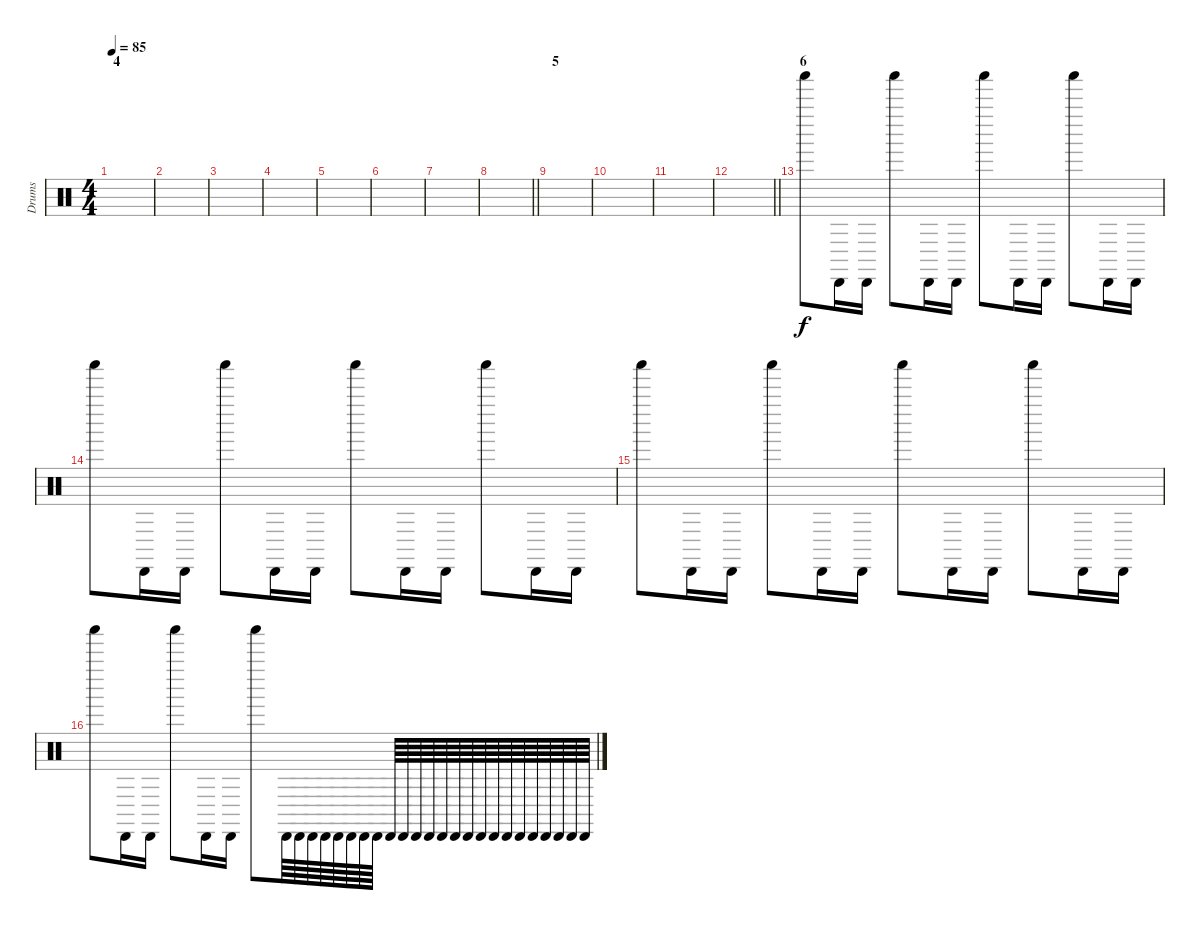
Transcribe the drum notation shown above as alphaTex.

\track ("Drums" "Drums") {instrument percussion}
\staff {score}
\articulation defaults
\ts (4 4)
\section ("" "4")
\tempo 85
\clef neutral
\ks c
|
|
|
|
|
|
|
\barLineRight lightlight
|
\section ("" "5")
|
|
|
\barLineRight lightlight
|
\section ("" "6")
"Shaker (hit)".8 "Cabasa (hit)".16 "Cabasa (hit)".16 "Shaker (hit)".8 "Cabasa (hit)".16 "Cabasa (hit)".16 "Shaker (hit)".8 "Cabasa (hit)".16 "Cabasa (hit)".16 "Shaker (hit)".8 "Cabasa (hit)".16 "Cabasa (hit)".16 |
"Shaker (hit)".8 "Cabasa (hit)".16 "Cabasa (hit)".16 "Shaker (hit)".8 "Cabasa (hit)".16 "Cabasa (hit)".16 "Shaker (hit)".8 "Cabasa (hit)".16 "Cabasa (hit)".16 "Shaker (hit)".8 "Cabasa (hit)".16 "Cabasa (hit)".16 |
"Shaker (hit)".8 "Cabasa (hit)".16 "Cabasa (hit)".16 "Shaker (hit)".8 "Cabasa (hit)".16 "Cabasa (hit)".16 "Shaker (hit)".8 "Cabasa (hit)".16 "Cabasa (hit)".16 "Shaker (hit)".8 "Cabasa (hit)".16 "Cabasa (hit)".16 |
"Shaker (hit)".8 "Cabasa (hit)".16 "Cabasa (hit)".16 "Shaker (hit)".8 "Cabasa (hit)".16 "Cabasa (hit)".16 "Shaker (hit)".8 "Cabasa (hit)".64 "Cabasa (hit)".64 "Cabasa (hit)".64 "Cabasa (hit)".64 "Cabasa (hit)".64 "Cabasa (hit)".64 "Cabasa (hit)".64 "Cabasa (hit)".64 "Cabasa (hit)".64 "Cabasa (hit)".64 "Cabasa (hit)".64 "Cabasa (hit)".64 "Cabasa (hit)".64 "Cabasa (hit)".64 "Cabasa (hit)".64 "Cabasa (hit)".64 "Cabasa (hit)".64 "Cabasa (hit)".64 "Cabasa (hit)".64 "Cabasa (hit)".64 "Cabasa (hit)".64 "Cabasa (hit)".64 "Cabasa (hit)".64 "Cabasa (hit)".64
